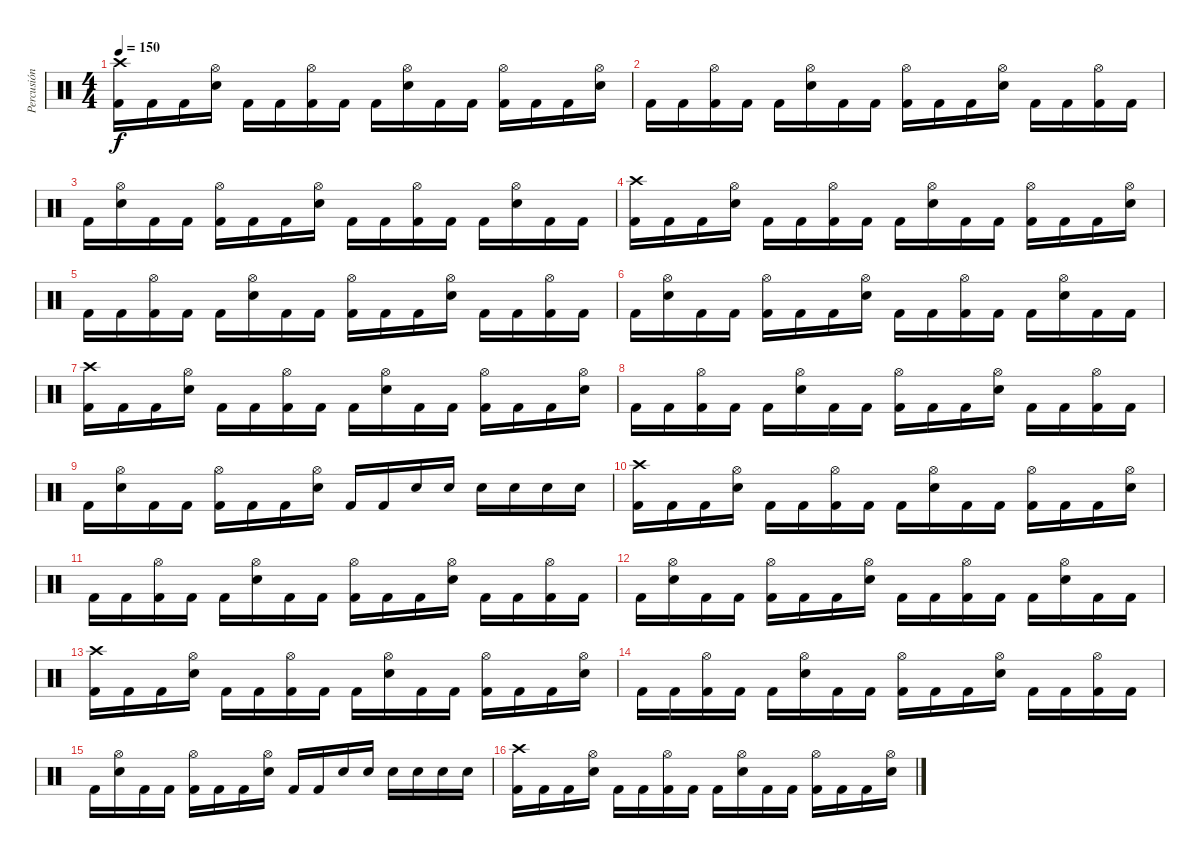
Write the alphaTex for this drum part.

\track ("Percusión" "Percusión") {instrument percussion}
\staff {score}
\articulation defaults
\ts (4 4)
\tempo 150
\clef neutral
\ks c
("Crash high (hit)" "Kick (hit) 2").16{dy f} "Kick (hit) 2".16 "Kick (hit) 2".16 ("Hi-Hat (open)" "Electric Snare (hit)").16 "Kick (hit) 2".16 "Kick (hit) 2".16 ("Hi-Hat (open)" "Kick (hit) 2").16 "Kick (hit) 2".16 "Kick (hit) 2".16 ("Hi-Hat (open)" "Electric Snare (hit)").16 "Kick (hit) 2".16 "Kick (hit) 2".16 ("Hi-Hat (open)" "Kick (hit) 2").16 "Kick (hit) 2".16 "Kick (hit) 2".16 ("Hi-Hat (open)" "Electric Snare (hit)").16 |
"Kick (hit) 2".16 "Kick (hit) 2".16 ("Hi-Hat (open)" "Kick (hit) 2").16 "Kick (hit) 2".16 "Kick (hit) 2".16 ("Hi-Hat (open)" "Electric Snare (hit)").16 "Kick (hit) 2".16 "Kick (hit) 2".16 ("Hi-Hat (open)" "Kick (hit) 2").16 "Kick (hit) 2".16 "Kick (hit) 2".16 ("Hi-Hat (open)" "Electric Snare (hit)").16 "Kick (hit) 2".16 "Kick (hit) 2".16 ("Hi-Hat (open)" "Kick (hit) 2").16 "Kick (hit) 2".16 |
"Kick (hit) 2".16 ("Hi-Hat (open)" "Electric Snare (hit)").16 "Kick (hit) 2".16 "Kick (hit) 2".16 ("Hi-Hat (open)" "Kick (hit) 2").16 "Kick (hit) 2".16 "Kick (hit) 2".16 ("Hi-Hat (open)" "Electric Snare (hit)").16 "Kick (hit) 2".16 "Kick (hit) 2".16 ("Hi-Hat (open)" "Kick (hit) 2").16 "Kick (hit) 2".16 "Kick (hit) 2".16 ("Hi-Hat (open)" "Electric Snare (hit)").16 "Kick (hit) 2".16 "Kick (hit) 2".16 |
("Crash high (hit)" "Kick (hit) 2").16 "Kick (hit) 2".16 "Kick (hit) 2".16 ("Hi-Hat (open)" "Electric Snare (hit)").16 "Kick (hit) 2".16 "Kick (hit) 2".16 ("Hi-Hat (open)" "Kick (hit) 2").16 "Kick (hit) 2".16 "Kick (hit) 2".16 ("Hi-Hat (open)" "Electric Snare (hit)").16 "Kick (hit) 2".16 "Kick (hit) 2".16 ("Hi-Hat (open)" "Kick (hit) 2").16 "Kick (hit) 2".16 "Kick (hit) 2".16 ("Hi-Hat (open)" "Electric Snare (hit)").16 |
"Kick (hit) 2".16 "Kick (hit) 2".16 ("Hi-Hat (open)" "Kick (hit) 2").16 "Kick (hit) 2".16 "Kick (hit) 2".16 ("Hi-Hat (open)" "Electric Snare (hit)").16 "Kick (hit) 2".16 "Kick (hit) 2".16 ("Hi-Hat (open)" "Kick (hit) 2").16 "Kick (hit) 2".16 "Kick (hit) 2".16 ("Hi-Hat (open)" "Electric Snare (hit)").16 "Kick (hit) 2".16 "Kick (hit) 2".16 ("Hi-Hat (open)" "Kick (hit) 2").16 "Kick (hit) 2".16 |
"Kick (hit) 2".16 ("Hi-Hat (open)" "Electric Snare (hit)").16 "Kick (hit) 2".16 "Kick (hit) 2".16 ("Hi-Hat (open)" "Kick (hit) 2").16 "Kick (hit) 2".16 "Kick (hit) 2".16 ("Hi-Hat (open)" "Electric Snare (hit)").16 "Kick (hit) 2".16 "Kick (hit) 2".16 ("Hi-Hat (open)" "Kick (hit) 2").16 "Kick (hit) 2".16 "Kick (hit) 2".16 ("Hi-Hat (open)" "Electric Snare (hit)").16 "Kick (hit) 2".16 "Kick (hit) 2".16 |
("Crash high (hit)" "Kick (hit) 2").16 "Kick (hit) 2".16 "Kick (hit) 2".16 ("Hi-Hat (open)" "Electric Snare (hit)").16 "Kick (hit) 2".16 "Kick (hit) 2".16 ("Hi-Hat (open)" "Kick (hit) 2").16 "Kick (hit) 2".16 "Kick (hit) 2".16 ("Hi-Hat (open)" "Electric Snare (hit)").16 "Kick (hit) 2".16 "Kick (hit) 2".16 ("Hi-Hat (open)" "Kick (hit) 2").16 "Kick (hit) 2".16 "Kick (hit) 2".16 ("Hi-Hat (open)" "Electric Snare (hit)").16 |
"Kick (hit) 2".16 "Kick (hit) 2".16 ("Hi-Hat (open)" "Kick (hit) 2").16 "Kick (hit) 2".16 "Kick (hit) 2".16 ("Hi-Hat (open)" "Electric Snare (hit)").16 "Kick (hit) 2".16 "Kick (hit) 2".16 ("Hi-Hat (open)" "Kick (hit) 2").16 "Kick (hit) 2".16 "Kick (hit) 2".16 ("Hi-Hat (open)" "Electric Snare (hit)").16 "Kick (hit) 2".16 "Kick (hit) 2".16 ("Hi-Hat (open)" "Kick (hit) 2").16 "Kick (hit) 2".16 |
"Kick (hit) 2".16 ("Hi-Hat (open)" "Electric Snare (hit)").16 "Kick (hit) 2".16 "Kick (hit) 2".16 ("Hi-Hat (open)" "Kick (hit) 2").16 "Kick (hit) 2".16 "Kick (hit) 2".16 ("Hi-Hat (open)" "Electric Snare (hit)").16 "Kick (hit) 2".16 "Kick (hit) 2".16 "Electric Snare (hit)".16 "Electric Snare (hit)".16 "Electric Snare (hit)".16 "Electric Snare (hit)".16 "Electric Snare (hit)".16 "Electric Snare (hit)".16 |
("Crash high (hit)" "Kick (hit) 2").16 "Kick (hit) 2".16 "Kick (hit) 2".16 ("Hi-Hat (open)" "Electric Snare (hit)").16 "Kick (hit) 2".16 "Kick (hit) 2".16 ("Hi-Hat (open)" "Kick (hit) 2").16 "Kick (hit) 2".16 "Kick (hit) 2".16 ("Hi-Hat (open)" "Electric Snare (hit)").16 "Kick (hit) 2".16 "Kick (hit) 2".16 ("Hi-Hat (open)" "Kick (hit) 2").16 "Kick (hit) 2".16 "Kick (hit) 2".16 ("Hi-Hat (open)" "Electric Snare (hit)").16 |
"Kick (hit) 2".16 "Kick (hit) 2".16 ("Hi-Hat (open)" "Kick (hit) 2").16 "Kick (hit) 2".16 "Kick (hit) 2".16 ("Hi-Hat (open)" "Electric Snare (hit)").16 "Kick (hit) 2".16 "Kick (hit) 2".16 ("Hi-Hat (open)" "Kick (hit) 2").16 "Kick (hit) 2".16 "Kick (hit) 2".16 ("Hi-Hat (open)" "Electric Snare (hit)").16 "Kick (hit) 2".16 "Kick (hit) 2".16 ("Hi-Hat (open)" "Kick (hit) 2").16 "Kick (hit) 2".16 |
"Kick (hit) 2".16 ("Hi-Hat (open)" "Electric Snare (hit)").16 "Kick (hit) 2".16 "Kick (hit) 2".16 ("Hi-Hat (open)" "Kick (hit) 2").16 "Kick (hit) 2".16 "Kick (hit) 2".16 ("Hi-Hat (open)" "Electric Snare (hit)").16 "Kick (hit) 2".16 "Kick (hit) 2".16 ("Hi-Hat (open)" "Kick (hit) 2").16 "Kick (hit) 2".16 "Kick (hit) 2".16 ("Hi-Hat (open)" "Electric Snare (hit)").16 "Kick (hit) 2".16 "Kick (hit) 2".16 |
("Crash high (hit)" "Kick (hit) 2").16 "Kick (hit) 2".16 "Kick (hit) 2".16 ("Hi-Hat (open)" "Electric Snare (hit)").16 "Kick (hit) 2".16 "Kick (hit) 2".16 ("Hi-Hat (open)" "Kick (hit) 2").16 "Kick (hit) 2".16 "Kick (hit) 2".16 ("Hi-Hat (open)" "Electric Snare (hit)").16 "Kick (hit) 2".16 "Kick (hit) 2".16 ("Hi-Hat (open)" "Kick (hit) 2").16 "Kick (hit) 2".16 "Kick (hit) 2".16 ("Hi-Hat (open)" "Electric Snare (hit)").16 |
"Kick (hit) 2".16 "Kick (hit) 2".16 ("Hi-Hat (open)" "Kick (hit) 2").16 "Kick (hit) 2".16 "Kick (hit) 2".16 ("Hi-Hat (open)" "Electric Snare (hit)").16 "Kick (hit) 2".16 "Kick (hit) 2".16 ("Hi-Hat (open)" "Kick (hit) 2").16 "Kick (hit) 2".16 "Kick (hit) 2".16 ("Hi-Hat (open)" "Electric Snare (hit)").16 "Kick (hit) 2".16 "Kick (hit) 2".16 ("Hi-Hat (open)" "Kick (hit) 2").16 "Kick (hit) 2".16 |
"Kick (hit) 2".16 ("Hi-Hat (open)" "Electric Snare (hit)").16 "Kick (hit) 2".16 "Kick (hit) 2".16 ("Hi-Hat (open)" "Kick (hit) 2").16 "Kick (hit) 2".16 "Kick (hit) 2".16 ("Hi-Hat (open)" "Electric Snare (hit)").16 "Kick (hit) 2".16 "Kick (hit) 2".16 "Electric Snare (hit)".16 "Electric Snare (hit)".16 "Electric Snare (hit)".16 "Electric Snare (hit)".16 "Electric Snare (hit)".16 "Electric Snare (hit)".16 |
("Crash high (hit)" "Kick (hit) 2").16 "Kick (hit) 2".16 "Kick (hit) 2".16 ("Hi-Hat (open)" "Electric Snare (hit)").16 "Kick (hit) 2".16 "Kick (hit) 2".16 ("Hi-Hat (open)" "Kick (hit) 2").16 "Kick (hit) 2".16 "Kick (hit) 2".16 ("Hi-Hat (open)" "Electric Snare (hit)").16 "Kick (hit) 2".16 "Kick (hit) 2".16 ("Hi-Hat (open)" "Kick (hit) 2").16 "Kick (hit) 2".16 "Kick (hit) 2".16 ("Hi-Hat (open)" "Electric Snare (hit)").16
